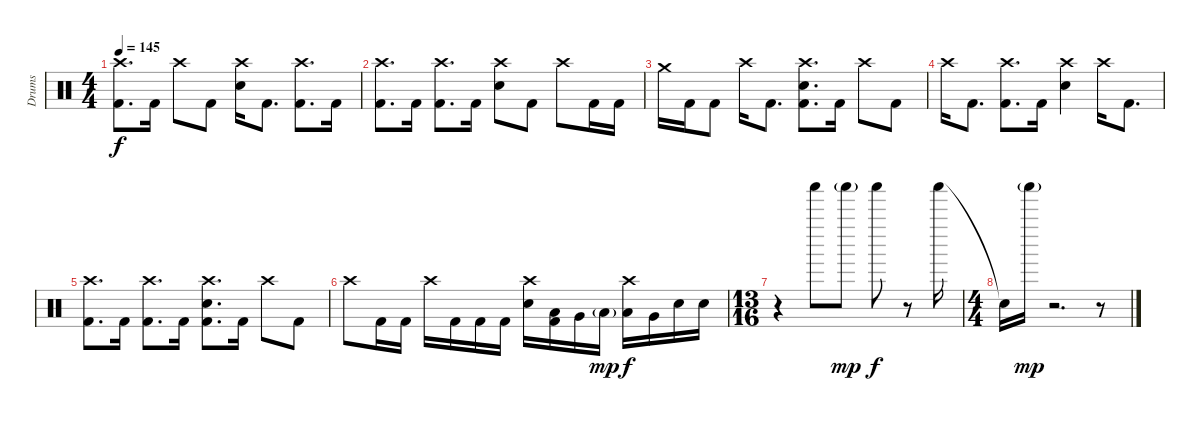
\track ("Drums" "Drums") {instrument percussion}
\staff {score}
\articulation defaults
\ts (4 4)
\tempo 145
\clef neutral
\ks c
("Crash high (hit)" "Kick (hit) 2").8{d dy f} "Kick (hit) 2".16 "Crash high (hit)".8 "Kick (hit) 2".8 ("Crash high (hit)" "Snare (hit) 2").16 "Kick (hit) 2".8{d} ("Crash high (hit)" "Kick (hit) 2").8{d} "Kick (hit) 2".16 |
("Crash high (hit)" "Kick (hit) 2").8{d} "Kick (hit) 2".16 ("Crash high (hit)" "Kick (hit) 2").8{d} "Kick (hit) 2".16 ("Crash high (hit)" "Snare (hit) 2").8 "Kick (hit) 2".8 "Crash high (hit)".8 "Kick (hit) 2".16 "Kick (hit) 2".16 |
"Crash medium (hit)".16 "Kick (hit) 2".16 "Kick (hit) 2".8 "Crash high (hit)".16 "Kick (hit) 2".8{d} ("Crash high (hit)" "Snare (hit) 2" "Kick (hit) 2").8{d} "Kick (hit) 2".16 "Crash high (hit)".8 "Kick (hit) 2".8 |
"Crash high (hit)".16 "Kick (hit) 2".8{d} ("Crash high (hit)" "Kick (hit) 2").8{d} "Kick (hit) 2".16 ("Crash high (hit)" "Snare (hit) 2").4 "Crash high (hit)".16 "Kick (hit) 2".8{d} |
("Crash high (hit)" "Kick (hit) 2").8{d} "Kick (hit) 2".16 ("Crash high (hit)" "Kick (hit) 2").8{d} "Kick (hit) 2".16 ("Crash high (hit)" "Snare (hit) 2" "Kick (hit) 2").8{d} "Kick (hit) 2".16 "Crash high (hit)".8 "Kick (hit) 2".8 |
"Crash high (hit)".8 "Kick (hit) 2".16 "Kick (hit) 2".16 "Crash high (hit)".16 "Kick (hit) 2".16 "Kick (hit) 2".16 "Kick (hit) 2".16 ("Crash high (hit)" "Snare (hit) 2").16 ("Low Tom (hit)" "Kick (hit) 2").16 "Very Low Tom (hit)".16 "Low Floor Tom (hit)"{g}.16{dy mp} ("Crash high (hit)" "Low Tom (hit)").16{dy f} "Very Low Tom (hit)".16 "Snare (hit) 2".16 "Snare (hit) 2".16 |
\ts (13 16)
r.4{volume 7} "Shaker (hit)".8 "Shaker (hit)"{g}.8{dy mp} "Shaker (hit)".8{dy f} r.8 "Shaker (hit)".16 |
\ts (4 4)
"Snare (hit)"{t}.16 "Shaker (hit)"{g}.16{dy mp} r.2{d} r.8
